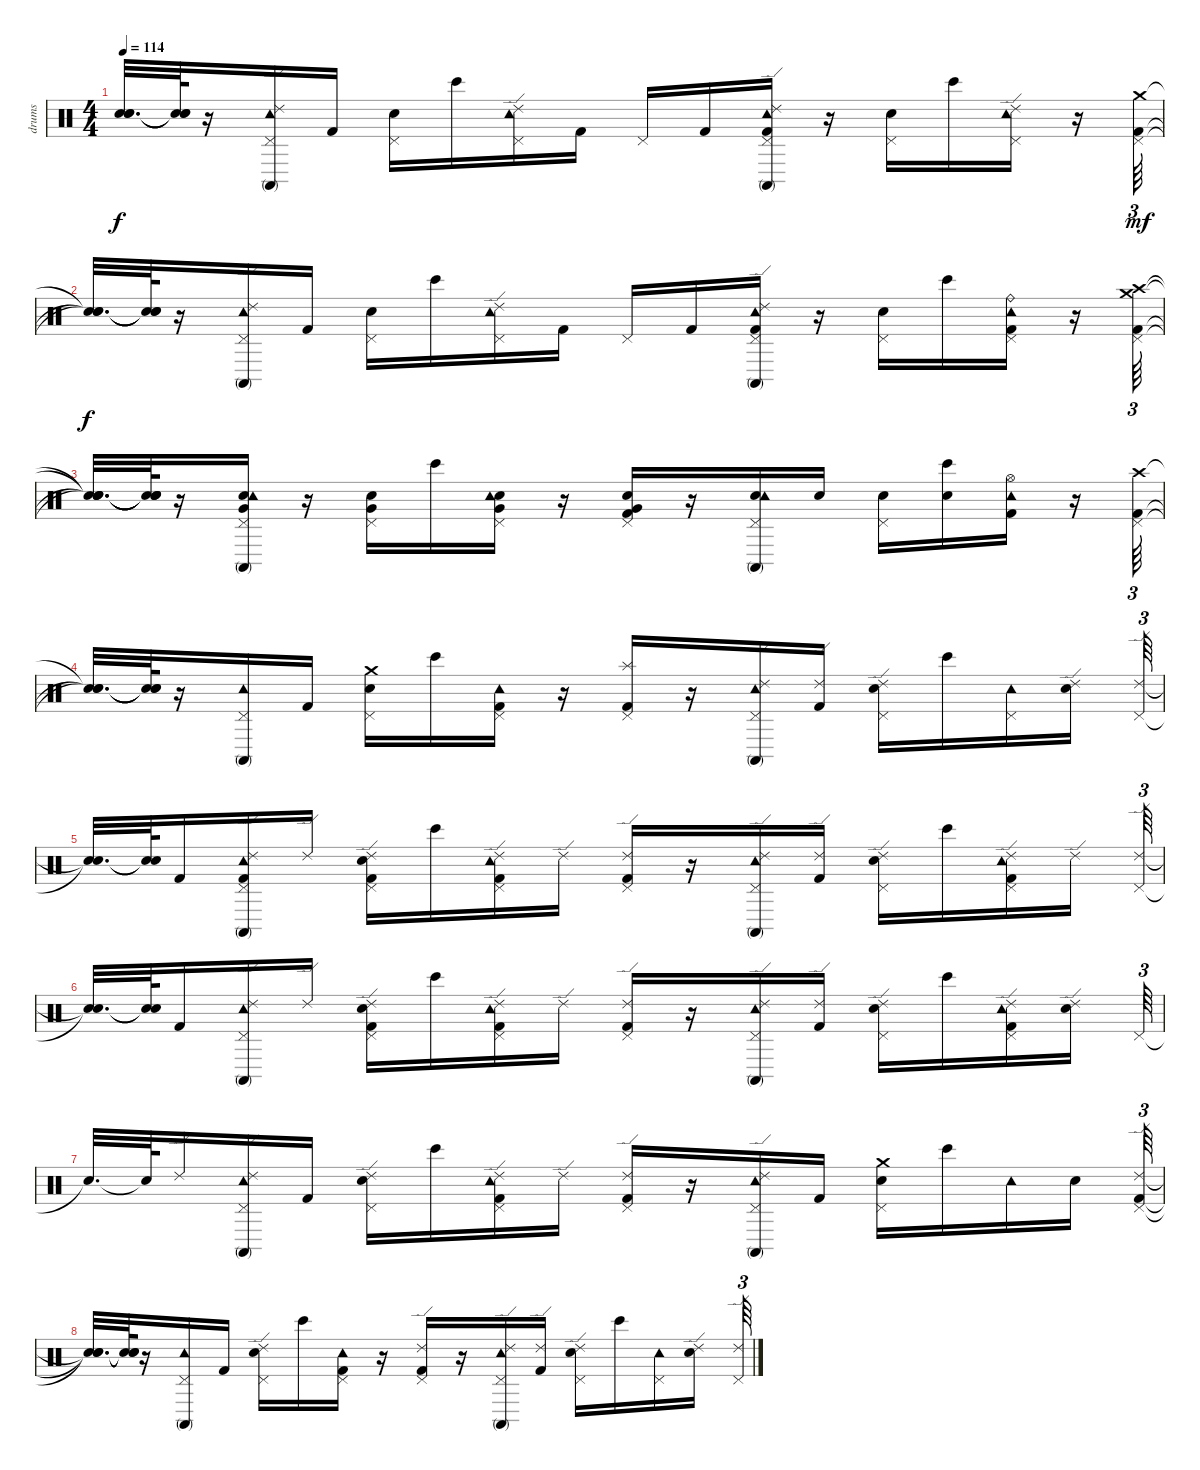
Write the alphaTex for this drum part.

\track ("drums" "drums") {instrument percussion}
\staff {score}
\articulation defaults
\ts (4 4)
\tempo 114
\clef neutral
\ks c
("Snare (hit)"{t} "Snare (hit)"{t} "Snare (hit)"{t}).32{d dy f} ("Snare (hit)"{t} "Snare (hit)"{t} "Snare (hit)"{t}).64 r.16 ("Ride (edge) 2" "Pedal Hi-Hat (hit)" "Tambourine (hit)" "Conga high (mute)").16 "Kick (hit) 2".16 ("Electric Snare (hit)" "Pedal Hi-Hat (hit)").16 "Bongo High (hit)".16 ("Ride (edge) 2" "Pedal Hi-Hat (hit)" "Tambourine (hit)").16 "Kick (hit) 2".16 "Pedal Hi-Hat (hit)".16 "Kick (hit) 2".16 ("Ride (edge) 2" "Kick (hit) 2" "Pedal Hi-Hat (hit)" "Conga high (mute)" "Tambourine (hit)").16 r.16 ("Electric Snare (hit)" "Pedal Hi-Hat (hit)").16 "Bongo High (hit)".16 ("Ride (edge) 2" "Pedal Hi-Hat (hit)" "Tambourine (hit)").16 r.16 ("Crash medium (hit)" "Kick (hit) 2" "Pedal Hi-Hat (hit)").64{tu (3 2) dy mf} |
("Snare (hit)"{t} "Snare (hit)"{t} "Snare (hit)"{t}).32{d dy f} ("Snare (hit)"{t} "Snare (hit)"{t} "Snare (hit)"{t}).64 r.16 ("Ride (edge) 2" "Pedal Hi-Hat (hit)" "Tambourine (hit)" "Conga high (mute)").16 "Kick (hit) 2".16 ("Electric Snare (hit)" "Pedal Hi-Hat (hit)").16 "Bongo High (hit)".16 ("Ride (edge) 2" "Pedal Hi-Hat (hit)" "Tambourine (hit)").16 "Kick (hit) 2".16 "Pedal Hi-Hat (hit)".16 "Kick (hit) 2".16 ("Ride (edge) 2" "Kick (hit) 2" "Pedal Hi-Hat (hit)" "Conga high (mute)" "Tambourine (hit)").16 r.16 ("Electric Snare (hit)" "Pedal Hi-Hat (hit)").16 "Bongo High (hit)".16 ("Kick (hit) 2" "Ride (bell)" "Pedal Hi-Hat (hit)" "Tambourine (hit)").16 r.16 ("Crash medium (hit)" "Crash high (hit)" "Kick (hit) 2" "Pedal Hi-Hat (hit)").64{tu (3 2)} |
("Snare (hit)"{t} "Snare (hit)"{t} "Snare (hit)"{t} "Snare (hit)"{t}).32{d} ("Snare (hit)"{t} "Snare (hit)"{t} "Snare (hit)"{t} "Snare (hit)"{t}).64 r.16 ("Very Low Tom (hit)" "Electric Snare (hit)" "Pedal Hi-Hat (hit)" "Tambourine (hit)" "Conga high (mute)").16 r.16 ("Very Low Tom (hit)" "Electric Snare (hit)" "Pedal Hi-Hat (hit)").16 "Bongo High (hit)".16 ("Very Low Tom (hit)" "Electric Snare (hit)" "Pedal Hi-Hat (hit)" "Tambourine (hit)").16 r.16 ("Kick (hit) 2" "Very Low Tom (hit)" "Electric Snare (hit)" "Pedal Hi-Hat (hit)").16 r.16 ("Electric Snare (hit)" "Pedal Hi-Hat (hit)" "Conga high (mute)" "Tambourine (hit)").16 "Electric Snare (hit)".16 ("Electric Snare (hit)" "Pedal Hi-Hat (hit)").16 ("Electric Snare (hit)" "Bongo High (hit)").16 ("Kick (hit) 2" "Hi-Hat (open)" "Tambourine (hit)").16 r.16 ("Kick (hit) 2" "Crash high (hit)" "Pedal Hi-Hat (hit)").64{tu (3 2)} |
("Snare (hit)"{t} "Snare (hit)"{t} "Snare (hit)"{t}).32{d} ("Snare (hit)"{t} "Snare (hit)"{t} "Snare (hit)"{t}).64 r.16 ("Pedal Hi-Hat (hit)" "Tambourine (hit)" "Conga high (mute)").16 "Kick (hit) 2".16 ("Electric Snare (hit)" "Crash medium (hit)" "Pedal Hi-Hat (hit)").16 "Bongo High (hit)".16 ("Kick (hit) 2" "Pedal Hi-Hat (hit)" "Tambourine (hit)").16 r.16 ("Splash (hit)" "Kick (hit) 2" "Pedal Hi-Hat (hit)").16 r.16 ("Ride (edge) 2" "Pedal Hi-Hat (hit)" "Conga high (mute)" "Tambourine (hit)").16 ("Kick (hit) 2" "Ride (edge) 2").16 ("Electric Snare (hit)" "Ride (edge) 2" "Pedal Hi-Hat (hit)").16 "Bongo High (hit)".16 ("Pedal Hi-Hat (hit)" "Tambourine (hit)").16 ("Ride (edge) 2" "Electric Snare (hit)").16 ("Ride (edge) 2" "Pedal Hi-Hat (hit)").64{tu (3 2)} |
("Snare (hit)"{t} "Snare (hit)"{t}).32{d} ("Snare (hit)"{t} "Snare (hit)"{t}).64 "Kick (hit) 2".16 ("Ride (edge) 2" "Kick (hit) 2" "Pedal Hi-Hat (hit)" "Tambourine (hit)" "Conga high (mute)").16 "Ride (edge) 2".16 ("Kick (hit) 2" "Ride (edge) 2" "Electric Snare (hit)" "Pedal Hi-Hat (hit)").16 "Bongo High (hit)".16 ("Ride (edge) 2" "Kick (hit) 2" "Pedal Hi-Hat (hit)" "Tambourine (hit)").16 "Ride (edge) 2".16 ("Kick (hit) 2" "Ride (edge) 2" "Pedal Hi-Hat (hit)").16 r.16 ("Ride (edge) 2" "Pedal Hi-Hat (hit)" "Conga high (mute)" "Tambourine (hit)").16 ("Ride (edge) 2" "Kick (hit) 2").16 ("Electric Snare (hit)" "Ride (edge) 2" "Pedal Hi-Hat (hit)").16 "Bongo High (hit)".16 ("Ride (edge) 2" "Kick (hit) 2" "Pedal Hi-Hat (hit)" "Tambourine (hit)").16 "Ride (edge) 2".16 ("Ride (edge) 2" "Pedal Hi-Hat (hit)").64{tu (3 2)} |
("Snare (hit)"{t} "Snare (hit)"{t}).32{d} ("Snare (hit)"{t} "Snare (hit)"{t}).64 "Kick (hit) 2".16 ("Ride (edge) 2" "Pedal Hi-Hat (hit)" "Tambourine (hit)" "Conga high (mute)").16 "Ride (edge) 2".16 ("Ride (edge) 2" "Kick (hit) 2" "Electric Snare (hit)" "Pedal Hi-Hat (hit)").16 "Bongo High (hit)".16 ("Kick (hit) 2" "Ride (edge) 2" "Pedal Hi-Hat (hit)" "Tambourine (hit)").16 "Ride (edge) 2".16 ("Ride (edge) 2" "Kick (hit) 2" "Pedal Hi-Hat (hit)").16 r.16 ("Ride (edge) 2" "Pedal Hi-Hat (hit)" "Conga high (mute)" "Tambourine (hit)").16 ("Ride (edge) 2" "Kick (hit) 2").16 ("Electric Snare (hit)" "Ride (edge) 2" "Pedal Hi-Hat (hit)").16 "Bongo High (hit)".16 ("Ride (edge) 2" "Kick (hit) 2" "Pedal Hi-Hat (hit)" "Tambourine (hit)").16 ("Ride (edge) 2" "Electric Snare (hit)").16 "Pedal Hi-Hat (hit)".64{tu (3 2)} |
"Snare (hit)"{t}.32{d} "Snare (hit)"{t}.64 "Ride (edge) 2".16 ("Ride (edge) 2" "Pedal Hi-Hat (hit)" "Tambourine (hit)" "Conga high (mute)").16 "Kick (hit) 2".16 ("Ride (edge) 2" "Electric Snare (hit)" "Pedal Hi-Hat (hit)").16 "Bongo High (hit)".16 ("Ride (edge) 2" "Kick (hit) 2" "Pedal Hi-Hat (hit)" "Tambourine (hit)").16 "Ride (edge) 2".16 ("Kick (hit) 2" "Ride (edge) 2" "Pedal Hi-Hat (hit)").16 r.16 ("Ride (edge) 2" "Pedal Hi-Hat (hit)" "Conga high (mute)" "Tambourine (hit)").16 "Kick (hit) 2".16 ("Crash medium (hit)" "Electric Snare (hit)" "Pedal Hi-Hat (hit)").16 "Bongo High (hit)".16 "Tambourine (hit)".16 "Electric Snare (hit)".16 ("Kick (hit) 2" "Ride (edge) 2" "Pedal Hi-Hat (hit)").64{tu (3 2)} |
("Snare (hit)"{t} "Snare (hit)"{t} "Snare (hit)"{t}).32{d} ("Snare (hit)"{t} "Snare (hit)"{t} "Snare (hit)"{t}).64 r.16 ("Pedal Hi-Hat (hit)" "Tambourine (hit)" "Conga high (mute)").16 "Kick (hit) 2".16 ("Electric Snare (hit)" "Ride (edge) 2" "Pedal Hi-Hat (hit)").16 "Bongo High (hit)".16 ("Kick (hit) 2" "Pedal Hi-Hat (hit)" "Tambourine (hit)").16 r.16 ("Ride (edge) 2" "Kick (hit) 2" "Pedal Hi-Hat (hit)").16 r.16 ("Ride (edge) 2" "Pedal Hi-Hat (hit)" "Conga high (mute)" "Tambourine (hit)").16 ("Kick (hit) 2" "Ride (edge) 2").16 ("Electric Snare (hit)" "Ride (edge) 2" "Pedal Hi-Hat (hit)").16 "Bongo High (hit)".16 ("Pedal Hi-Hat (hit)" "Tambourine (hit)").16 ("Ride (edge) 2" "Electric Snare (hit)").16 ("Ride (edge) 2" "Pedal Hi-Hat (hit)").64{tu (3 2)}
